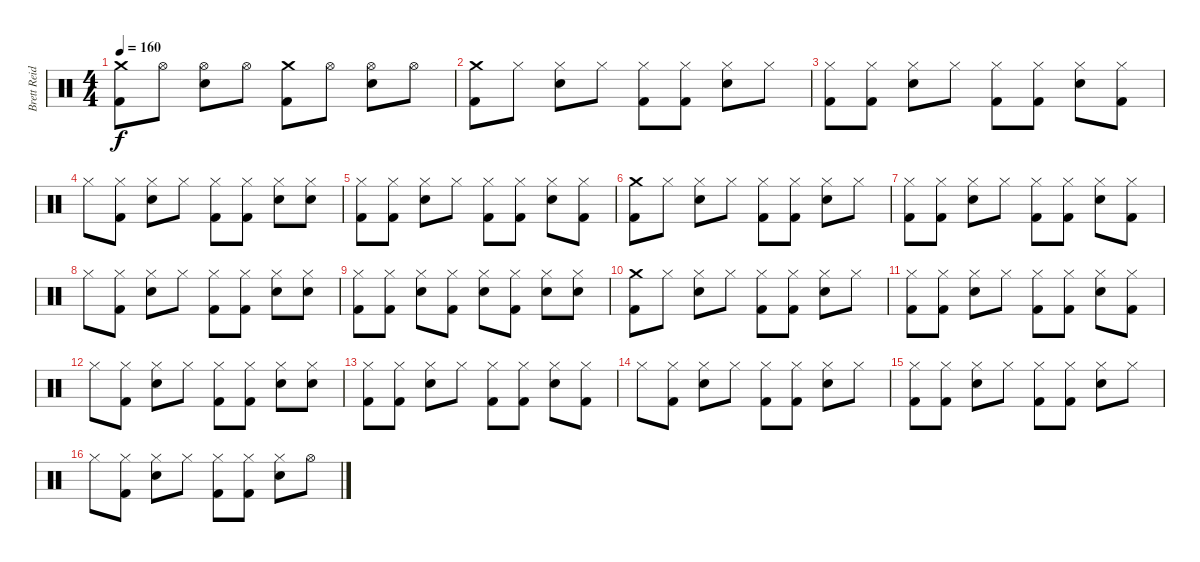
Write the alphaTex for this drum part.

\track ("Brett Reid" "Brett Reid") {instrument percussion}
\staff {score}
\articulation defaults
\ts (4 4)
\tempo 160
\clef neutral
\ks c
("Crash medium (hit)" "Kick (hit) 2").8{dy f} "Hi-Hat (open)".8 ("Hi-Hat (open)" "Snare (hit) 2").8 "Hi-Hat (open)".8 ("Crash medium (hit)" "Kick (hit) 2").8 "Hi-Hat (open)".8 ("Hi-Hat (open)" "Snare (hit) 2").8 "Hi-Hat (open)".8 |
("Crash medium (hit)" "Kick (hit) 2").8 "Hi-Hat (closed)".8 ("Hi-Hat (closed)" "Snare (hit) 2").8 "Hi-Hat (closed)".8 ("Hi-Hat (closed)" "Kick (hit) 2").8 ("Hi-Hat (closed)" "Kick (hit) 2").8 ("Hi-Hat (closed)" "Snare (hit) 2").8 "Hi-Hat (closed)".8 |
("Hi-Hat (closed)" "Kick (hit) 2").8 ("Hi-Hat (closed)" "Kick (hit) 2").8 ("Hi-Hat (closed)" "Snare (hit) 2").8 "Hi-Hat (closed)".8 ("Hi-Hat (closed)" "Kick (hit) 2").8 ("Hi-Hat (closed)" "Kick (hit) 2").8 ("Hi-Hat (closed)" "Snare (hit) 2").8 ("Hi-Hat (closed)" "Kick (hit) 2").8 |
"Hi-Hat (closed)".8 ("Hi-Hat (closed)" "Kick (hit) 2").8 ("Hi-Hat (closed)" "Snare (hit) 2").8 "Hi-Hat (closed)".8 ("Hi-Hat (closed)" "Kick (hit) 2").8 ("Hi-Hat (closed)" "Kick (hit) 2").8 ("Hi-Hat (closed)" "Snare (hit) 2").8 ("Hi-Hat (closed)" "Snare (hit) 2").8 |
("Hi-Hat (closed)" "Kick (hit) 2").8 ("Hi-Hat (closed)" "Kick (hit) 2").8 ("Hi-Hat (closed)" "Snare (hit) 2").8 "Hi-Hat (closed)".8 ("Hi-Hat (closed)" "Kick (hit) 2").8 ("Hi-Hat (closed)" "Kick (hit) 2").8 ("Hi-Hat (closed)" "Snare (hit) 2").8 ("Hi-Hat (closed)" "Kick (hit) 2").8 |
("Crash medium (hit)" "Kick (hit) 2").8 "Hi-Hat (closed)".8 ("Hi-Hat (closed)" "Snare (hit) 2").8 "Hi-Hat (closed)".8 ("Hi-Hat (closed)" "Kick (hit) 2").8 ("Hi-Hat (closed)" "Kick (hit) 2").8 ("Hi-Hat (closed)" "Snare (hit) 2").8 "Hi-Hat (closed)".8 |
("Hi-Hat (closed)" "Kick (hit) 2").8 ("Hi-Hat (closed)" "Kick (hit) 2").8 ("Hi-Hat (closed)" "Snare (hit) 2").8 "Hi-Hat (closed)".8 ("Hi-Hat (closed)" "Kick (hit) 2").8 ("Hi-Hat (closed)" "Kick (hit) 2").8 ("Hi-Hat (closed)" "Snare (hit) 2").8 ("Hi-Hat (closed)" "Kick (hit) 2").8 |
"Hi-Hat (closed)".8 ("Hi-Hat (closed)" "Kick (hit) 2").8 ("Hi-Hat (closed)" "Snare (hit) 2").8 "Hi-Hat (closed)".8 ("Hi-Hat (closed)" "Kick (hit) 2").8 ("Hi-Hat (closed)" "Kick (hit) 2").8 ("Hi-Hat (closed)" "Snare (hit) 2").8 ("Hi-Hat (closed)" "Snare (hit) 2").8 |
("Hi-Hat (closed)" "Kick (hit) 2").8 ("Hi-Hat (closed)" "Kick (hit) 2").8 ("Hi-Hat (closed)" "Snare (hit) 2").8 ("Hi-Hat (closed)" "Kick (hit) 2").8 ("Hi-Hat (closed)" "Snare (hit) 2").8 ("Hi-Hat (closed)" "Kick (hit) 2").8 ("Hi-Hat (closed)" "Snare (hit) 2").8 ("Hi-Hat (closed)" "Snare (hit) 2").8 |
("Crash medium (hit)" "Kick (hit) 2").8 "Hi-Hat (closed)".8 ("Hi-Hat (closed)" "Snare (hit) 2").8 "Hi-Hat (closed)".8 ("Hi-Hat (closed)" "Kick (hit) 2").8 ("Hi-Hat (closed)" "Kick (hit) 2").8 ("Hi-Hat (closed)" "Snare (hit) 2").8 "Hi-Hat (closed)".8 |
("Hi-Hat (closed)" "Kick (hit) 2").8 ("Hi-Hat (closed)" "Kick (hit) 2").8 ("Hi-Hat (closed)" "Snare (hit) 2").8 "Hi-Hat (closed)".8 ("Hi-Hat (closed)" "Kick (hit) 2").8 ("Hi-Hat (closed)" "Kick (hit) 2").8 ("Hi-Hat (closed)" "Snare (hit) 2").8 ("Hi-Hat (closed)" "Kick (hit) 2").8 |
"Hi-Hat (closed)".8 ("Hi-Hat (closed)" "Kick (hit) 2").8 ("Hi-Hat (closed)" "Snare (hit) 2").8 "Hi-Hat (closed)".8 ("Hi-Hat (closed)" "Kick (hit) 2").8 ("Hi-Hat (closed)" "Kick (hit) 2").8 ("Hi-Hat (closed)" "Snare (hit) 2").8 ("Hi-Hat (closed)" "Snare (hit) 2").8 |
("Hi-Hat (closed)" "Kick (hit) 2").8 ("Hi-Hat (closed)" "Kick (hit) 2").8 ("Hi-Hat (closed)" "Snare (hit) 2").8 "Hi-Hat (closed)".8 ("Hi-Hat (closed)" "Kick (hit) 2").8 ("Hi-Hat (closed)" "Kick (hit) 2").8 ("Hi-Hat (closed)" "Snare (hit) 2").8 ("Hi-Hat (closed)" "Kick (hit) 2").8 |
"Hi-Hat (closed)".8 ("Hi-Hat (closed)" "Kick (hit) 2").8 ("Hi-Hat (closed)" "Snare (hit) 2").8 "Hi-Hat (closed)".8 ("Hi-Hat (closed)" "Kick (hit) 2").8 ("Hi-Hat (closed)" "Kick (hit) 2").8 ("Hi-Hat (closed)" "Snare (hit) 2").8 "Hi-Hat (closed)".8 |
("Hi-Hat (closed)" "Kick (hit) 2").8 ("Hi-Hat (closed)" "Kick (hit) 2").8 ("Hi-Hat (closed)" "Snare (hit) 2").8 "Hi-Hat (closed)".8 ("Hi-Hat (closed)" "Kick (hit) 2").8 ("Hi-Hat (closed)" "Kick (hit) 2").8 ("Hi-Hat (closed)" "Snare (hit) 2").8 "Hi-Hat (closed)".8 |
"Hi-Hat (closed)".8 ("Hi-Hat (closed)" "Kick (hit) 2").8 ("Hi-Hat (closed)" "Snare (hit) 2").8 "Hi-Hat (closed)".8 ("Hi-Hat (closed)" "Kick (hit) 2").8 ("Hi-Hat (closed)" "Kick (hit) 2").8 ("Hi-Hat (closed)" "Snare (hit) 2").8 "Hi-Hat (open)".8
